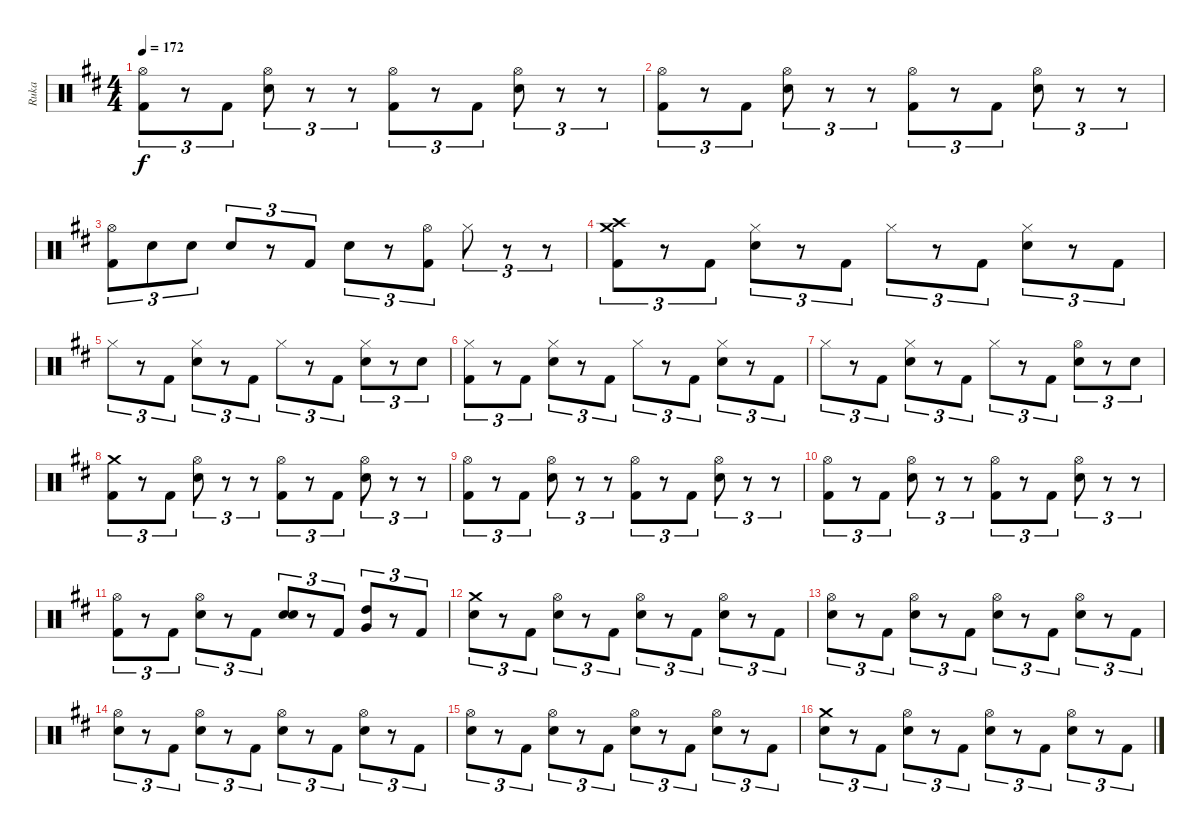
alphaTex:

\track ("Ruka" "Ruka") {instrument percussion}
\staff {score}
\articulation defaults
\ts (4 4)
\tempo 172
\clef neutral
\ks bminor
("Kick (hit) 2" "Hi-Hat (open)").8{tu (3 2) dy f} r.8{tu (3 2)} "Kick (hit) 2".8{tu (3 2)} ("Electric Snare (hit)" "Hi-Hat (open)").8{tu (3 2)} r.8{tu (3 2)} r.8{tu (3 2)} ("Kick (hit) 2" "Hi-Hat (open)").8{tu (3 2)} r.8{tu (3 2)} "Kick (hit) 2".8{tu (3 2)} ("Electric Snare (hit)" "Hi-Hat (open)").8{tu (3 2)} r.8{tu (3 2)} r.8{tu (3 2)} |
("Kick (hit) 2" "Hi-Hat (open)").8{tu (3 2)} r.8{tu (3 2)} "Kick (hit) 2".8{tu (3 2)} ("Electric Snare (hit)" "Hi-Hat (open)").8{tu (3 2)} r.8{tu (3 2)} r.8{tu (3 2)} ("Kick (hit) 2" "Hi-Hat (open)").8{tu (3 2)} r.8{tu (3 2)} "Kick (hit) 2".8{tu (3 2)} ("Electric Snare (hit)" "Hi-Hat (open)").8{tu (3 2)} r.8{tu (3 2)} r.8{tu (3 2)} |
("Hi-Hat (open)" "Kick (hit) 2").8{tu (3 2)} "Electric Snare (hit)".8{tu (3 2)} "Electric Snare (hit)".8{tu (3 2)} "Electric Snare (hit)".8{tu (3 2)} r.8{tu (3 2)} "Kick (hit) 2".8{tu (3 2)} "Electric Snare (hit)".8{tu (3 2)} r.8{tu (3 2)} ("Hi-Hat (open)" "Kick (hit) 2").8{tu (3 2)} "Hi-Hat (closed)".8{tu (3 2)} r.8{tu (3 2)} r.8{tu (3 2)} |
("Kick (hit) 2" "Crash medium (hit)" "Crash high (hit)").8{tu (3 2)} r.8{tu (3 2)} "Kick (hit) 2".8{tu (3 2)} ("Electric Snare (hit)" "Hi-Hat (closed)").8{tu (3 2)} r.8{tu (3 2)} "Kick (hit) 2".8{tu (3 2)} "Hi-Hat (closed)".8{tu (3 2)} r.8{tu (3 2)} "Kick (hit) 2".8{tu (3 2)} ("Electric Snare (hit)" "Hi-Hat (closed)").8{tu (3 2)} r.8{tu (3 2)} "Kick (hit) 2".8{tu (3 2)} |
"Hi-Hat (closed)".8{tu (3 2)} r.8{tu (3 2)} "Kick (hit) 2".8{tu (3 2)} ("Electric Snare (hit)" "Hi-Hat (closed)").8{tu (3 2)} r.8{tu (3 2)} "Kick (hit) 2".8{tu (3 2)} "Hi-Hat (closed)".8{tu (3 2)} r.8{tu (3 2)} "Kick (hit) 2".8{tu (3 2)} ("Electric Snare (hit)" "Hi-Hat (closed)").8{tu (3 2)} r.8{tu (3 2)} "Electric Snare (hit)".8{tu (3 2)} |
("Hi-Hat (closed)" "Kick (hit) 2").8{tu (3 2)} r.8{tu (3 2)} "Kick (hit) 2".8{tu (3 2)} ("Electric Snare (hit)" "Hi-Hat (closed)").8{tu (3 2)} r.8{tu (3 2)} "Kick (hit) 2".8{tu (3 2)} "Hi-Hat (closed)".8{tu (3 2)} r.8{tu (3 2)} "Kick (hit) 2".8{tu (3 2)} ("Electric Snare (hit)" "Hi-Hat (closed)").8{tu (3 2)} r.8{tu (3 2)} "Kick (hit) 2".8{tu (3 2)} |
"Hi-Hat (closed)".8{tu (3 2)} r.8{tu (3 2)} "Kick (hit) 2".8{tu (3 2)} ("Electric Snare (hit)" "Hi-Hat (closed)").8{tu (3 2)} r.8{tu (3 2)} "Kick (hit) 2".8{tu (3 2)} "Hi-Hat (closed)".8{tu (3 2)} r.8{tu (3 2)} "Kick (hit) 2".8{tu (3 2)} ("Electric Snare (hit)" "Hi-Hat (open)").8{tu (3 2)} r.8{tu (3 2)} "Electric Snare (hit)".8{tu (3 2)} |
("Kick (hit) 2" "Crash medium (hit)").8{tu (3 2)} r.8{tu (3 2)} "Kick (hit) 2".8{tu (3 2)} ("Electric Snare (hit)" "Hi-Hat (open)").8{tu (3 2)} r.8{tu (3 2)} r.8{tu (3 2)} ("Kick (hit) 2" "Hi-Hat (open)").8{tu (3 2)} r.8{tu (3 2)} "Kick (hit) 2".8{tu (3 2)} ("Electric Snare (hit)" "Hi-Hat (open)").8{tu (3 2)} r.8{tu (3 2)} r.8{tu (3 2)} |
("Kick (hit) 2" "Hi-Hat (open)").8{tu (3 2)} r.8{tu (3 2)} "Kick (hit) 2".8{tu (3 2)} ("Electric Snare (hit)" "Hi-Hat (open)").8{tu (3 2)} r.8{tu (3 2)} r.8{tu (3 2)} ("Kick (hit) 2" "Hi-Hat (open)").8{tu (3 2)} r.8{tu (3 2)} "Kick (hit) 2".8{tu (3 2)} ("Electric Snare (hit)" "Hi-Hat (open)").8{tu (3 2)} r.8{tu (3 2)} r.8{tu (3 2)} |
("Kick (hit) 2" "Hi-Hat (open)").8{tu (3 2)} r.8{tu (3 2)} "Kick (hit) 2".8{tu (3 2)} ("Electric Snare (hit)" "Hi-Hat (open)").8{tu (3 2)} r.8{tu (3 2)} r.8{tu (3 2)} ("Kick (hit) 2" "Hi-Hat (open)").8{tu (3 2)} r.8{tu (3 2)} "Kick (hit) 2".8{tu (3 2)} ("Electric Snare (hit)" "Hi-Hat (open)").8{tu (3 2)} r.8{tu (3 2)} r.8{tu (3 2)} |
("Kick (hit) 2" "Hi-Hat (open)").8{tu (3 2)} r.8{tu (3 2)} "Kick (hit) 2".8{tu (3 2)} ("Electric Snare (hit)" "Hi-Hat (open)").8{tu (3 2)} r.8{tu (3 2)} "Kick (hit) 2".8{tu (3 2)} ("Electric Snare (hit)" "Electric Snare (hit)").8{tu (3 2)} r.8{tu (3 2)} "Kick (hit) 2".8{tu (3 2)} ("High Tom (hit)" "Very Low Tom (hit)").8{tu (3 2)} r.8{tu (3 2)} "Kick (hit) 2".8{tu (3 2)} |
("Crash medium (hit)" "Electric Snare (hit)").8{tu (3 2)} r.8{tu (3 2)} "Kick (hit) 2".8{tu (3 2)} ("Electric Snare (hit)" "Hi-Hat (open)").8{tu (3 2)} r.8{tu (3 2)} "Kick (hit) 2".8{tu (3 2)} ("Electric Snare (hit)" "Hi-Hat (open)").8{tu (3 2)} r.8{tu (3 2)} "Kick (hit) 2".8{tu (3 2)} ("Electric Snare (hit)" "Hi-Hat (open)").8{tu (3 2)} r.8{tu (3 2)} "Kick (hit) 2".8{tu (3 2)} |
("Hi-Hat (open)" "Electric Snare (hit)").8{tu (3 2)} r.8{tu (3 2)} "Kick (hit) 2".8{tu (3 2)} ("Electric Snare (hit)" "Hi-Hat (open)").8{tu (3 2)} r.8{tu (3 2)} "Kick (hit) 2".8{tu (3 2)} ("Electric Snare (hit)" "Hi-Hat (open)").8{tu (3 2)} r.8{tu (3 2)} "Kick (hit) 2".8{tu (3 2)} ("Electric Snare (hit)" "Hi-Hat (open)").8{tu (3 2)} r.8{tu (3 2)} "Kick (hit) 2".8{tu (3 2)} |
("Hi-Hat (open)" "Electric Snare (hit)").8{tu (3 2)} r.8{tu (3 2)} "Kick (hit) 2".8{tu (3 2)} ("Electric Snare (hit)" "Hi-Hat (open)").8{tu (3 2)} r.8{tu (3 2)} "Kick (hit) 2".8{tu (3 2)} ("Electric Snare (hit)" "Hi-Hat (open)").8{tu (3 2)} r.8{tu (3 2)} "Kick (hit) 2".8{tu (3 2)} ("Electric Snare (hit)" "Hi-Hat (open)").8{tu (3 2)} r.8{tu (3 2)} "Kick (hit) 2".8{tu (3 2)} |
("Hi-Hat (open)" "Electric Snare (hit)").8{tu (3 2)} r.8{tu (3 2)} "Kick (hit) 2".8{tu (3 2)} ("Electric Snare (hit)" "Hi-Hat (open)").8{tu (3 2)} r.8{tu (3 2)} "Kick (hit) 2".8{tu (3 2)} ("Electric Snare (hit)" "Hi-Hat (open)").8{tu (3 2)} r.8{tu (3 2)} "Kick (hit) 2".8{tu (3 2)} ("Electric Snare (hit)" "Hi-Hat (open)").8{tu (3 2)} r.8{tu (3 2)} "Kick (hit) 2".8{tu (3 2)} |
("Crash medium (hit)" "Electric Snare (hit)").8{tu (3 2)} r.8{tu (3 2)} "Kick (hit) 2".8{tu (3 2)} ("Electric Snare (hit)" "Hi-Hat (open)").8{tu (3 2)} r.8{tu (3 2)} "Kick (hit) 2".8{tu (3 2)} ("Electric Snare (hit)" "Hi-Hat (open)").8{tu (3 2)} r.8{tu (3 2)} "Kick (hit) 2".8{tu (3 2)} ("Electric Snare (hit)" "Hi-Hat (open)").8{tu (3 2)} r.8{tu (3 2)} "Kick (hit) 2".8{tu (3 2)}
